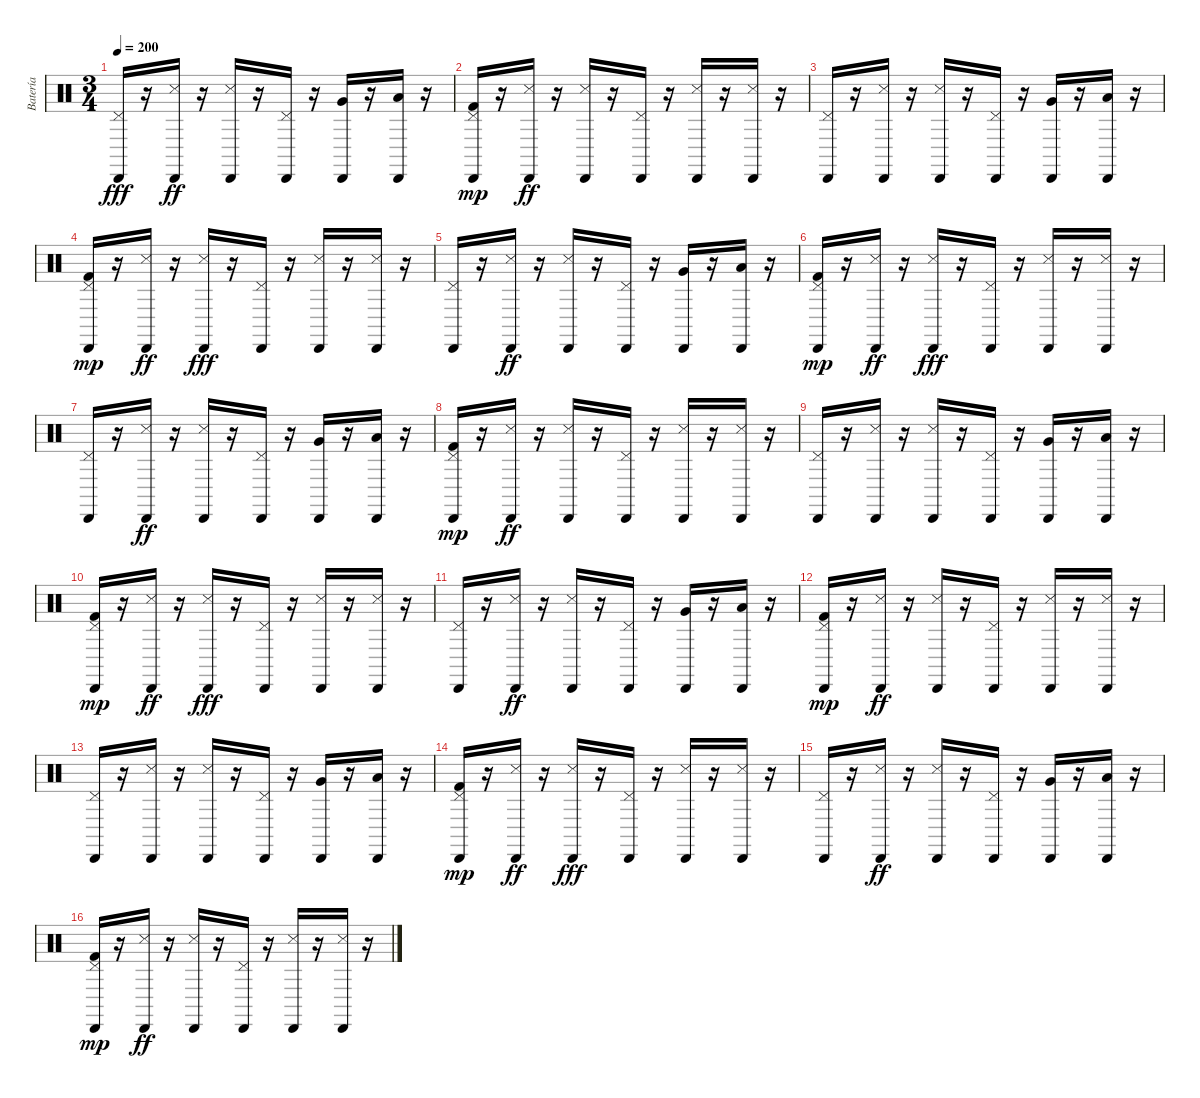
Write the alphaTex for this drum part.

\track ("Batería" "Batería") {instrument percussion}
\staff {score}
\articulation defaults
\ts (3 4)
\tempo 200
\clef neutral
\ks c
("Cabasa (hit)" "Pedal Hi-Hat (hit)").16{dy fff} r.16 ("Cabasa (hit)" "Snare (side stick) 3").16{dy ff} r.16 ("Cabasa (hit)" "Snare (side stick) 3").16 r.16 ("Cabasa (hit)" "Pedal Hi-Hat (hit)").16 r.16 ("Cabasa (hit)" "Very Low Tom (hit)").16 r.16 ("Cabasa (hit)" "Low Floor Tom (hit)").16 r.16 |
("Cabasa (hit)" "Pedal Hi-Hat (hit)" "Kick (hit) 2").16{dy mp} r.16 ("Cabasa (hit)" "Snare (side stick) 3").16{dy ff} r.16 ("Cabasa (hit)" "Snare (side stick) 3").16 r.16 ("Cabasa (hit)" "Pedal Hi-Hat (hit)").16 r.16 ("Cabasa (hit)" "Snare (side stick) 3").16 r.16 ("Cabasa (hit)" "Snare (side stick) 3").16 r.16 |
("Cabasa (hit)" "Pedal Hi-Hat (hit)").16 r.16 ("Cabasa (hit)" "Snare (side stick) 3").16 r.16 ("Cabasa (hit)" "Snare (side stick) 3").16 r.16 ("Cabasa (hit)" "Pedal Hi-Hat (hit)").16 r.16 ("Cabasa (hit)" "Very Low Tom (hit)").16 r.16 ("Cabasa (hit)" "Low Floor Tom (hit)").16 r.16 |
("Cabasa (hit)" "Pedal Hi-Hat (hit)" "Kick (hit) 2").16{dy mp} r.16 ("Cabasa (hit)" "Snare (side stick) 3").16{dy ff} r.16 ("Cabasa (hit)" "Snare (side stick) 3").16{dy fff} r.16 ("Cabasa (hit)" "Pedal Hi-Hat (hit)").16 r.16 ("Cabasa (hit)" "Snare (side stick) 3").16 r.16 ("Cabasa (hit)" "Snare (side stick) 3").16 r.16 |
("Cabasa (hit)" "Pedal Hi-Hat (hit)").16 r.16 ("Cabasa (hit)" "Snare (side stick) 3").16{dy ff} r.16 ("Cabasa (hit)" "Snare (side stick) 3").16 r.16 ("Cabasa (hit)" "Pedal Hi-Hat (hit)").16 r.16 ("Cabasa (hit)" "Very Low Tom (hit)").16 r.16 ("Cabasa (hit)" "Low Floor Tom (hit)").16 r.16 |
("Cabasa (hit)" "Pedal Hi-Hat (hit)" "Kick (hit) 2").16{dy mp} r.16 ("Cabasa (hit)" "Snare (side stick) 3").16{dy ff} r.16 ("Cabasa (hit)" "Snare (side stick) 3").16{dy fff} r.16 ("Cabasa (hit)" "Pedal Hi-Hat (hit)").16 r.16 ("Cabasa (hit)" "Snare (side stick) 3").16 r.16 ("Cabasa (hit)" "Snare (side stick) 3").16 r.16 |
("Cabasa (hit)" "Pedal Hi-Hat (hit)").16 r.16 ("Cabasa (hit)" "Snare (side stick) 3").16{dy ff} r.16 ("Cabasa (hit)" "Snare (side stick) 3").16 r.16 ("Cabasa (hit)" "Pedal Hi-Hat (hit)").16 r.16 ("Cabasa (hit)" "Very Low Tom (hit)").16 r.16 ("Cabasa (hit)" "Low Floor Tom (hit)").16 r.16 |
("Cabasa (hit)" "Pedal Hi-Hat (hit)" "Kick (hit) 2").16{dy mp} r.16 ("Cabasa (hit)" "Snare (side stick) 3").16{dy ff} r.16 ("Cabasa (hit)" "Snare (side stick) 3").16 r.16 ("Cabasa (hit)" "Pedal Hi-Hat (hit)").16 r.16 ("Cabasa (hit)" "Snare (side stick) 3").16 r.16 ("Cabasa (hit)" "Snare (side stick) 3").16 r.16 |
("Cabasa (hit)" "Pedal Hi-Hat (hit)").16 r.16 ("Cabasa (hit)" "Snare (side stick) 3").16 r.16 ("Cabasa (hit)" "Snare (side stick) 3").16 r.16 ("Cabasa (hit)" "Pedal Hi-Hat (hit)").16 r.16 ("Cabasa (hit)" "Very Low Tom (hit)").16 r.16 ("Cabasa (hit)" "Low Floor Tom (hit)").16 r.16 |
("Cabasa (hit)" "Pedal Hi-Hat (hit)" "Kick (hit) 2").16{dy mp} r.16 ("Cabasa (hit)" "Snare (side stick) 3").16{dy ff} r.16 ("Cabasa (hit)" "Snare (side stick) 3").16{dy fff} r.16 ("Cabasa (hit)" "Pedal Hi-Hat (hit)").16 r.16 ("Cabasa (hit)" "Snare (side stick) 3").16 r.16 ("Cabasa (hit)" "Snare (side stick) 3").16 r.16 |
("Cabasa (hit)" "Pedal Hi-Hat (hit)").16 r.16 ("Cabasa (hit)" "Snare (side stick) 3").16{dy ff} r.16 ("Cabasa (hit)" "Snare (side stick) 3").16 r.16 ("Cabasa (hit)" "Pedal Hi-Hat (hit)").16 r.16 ("Cabasa (hit)" "Very Low Tom (hit)").16 r.16 ("Cabasa (hit)" "Low Floor Tom (hit)").16 r.16 |
("Cabasa (hit)" "Pedal Hi-Hat (hit)" "Kick (hit) 2").16{dy mp} r.16 ("Cabasa (hit)" "Snare (side stick) 3").16{dy ff} r.16 ("Cabasa (hit)" "Snare (side stick) 3").16 r.16 ("Cabasa (hit)" "Pedal Hi-Hat (hit)").16 r.16 ("Cabasa (hit)" "Snare (side stick) 3").16 r.16 ("Cabasa (hit)" "Snare (side stick) 3").16 r.16 |
("Cabasa (hit)" "Pedal Hi-Hat (hit)").16 r.16 ("Cabasa (hit)" "Snare (side stick) 3").16 r.16 ("Cabasa (hit)" "Snare (side stick) 3").16 r.16 ("Cabasa (hit)" "Pedal Hi-Hat (hit)").16 r.16 ("Cabasa (hit)" "Very Low Tom (hit)").16 r.16 ("Cabasa (hit)" "Low Floor Tom (hit)").16 r.16 |
("Cabasa (hit)" "Pedal Hi-Hat (hit)" "Kick (hit) 2").16{dy mp} r.16 ("Cabasa (hit)" "Snare (side stick) 3").16{dy ff} r.16 ("Cabasa (hit)" "Snare (side stick) 3").16{dy fff} r.16 ("Cabasa (hit)" "Pedal Hi-Hat (hit)").16 r.16 ("Cabasa (hit)" "Snare (side stick) 3").16 r.16 ("Cabasa (hit)" "Snare (side stick) 3").16 r.16 |
("Cabasa (hit)" "Pedal Hi-Hat (hit)").16 r.16 ("Cabasa (hit)" "Snare (side stick) 3").16{dy ff} r.16 ("Cabasa (hit)" "Snare (side stick) 3").16 r.16 ("Cabasa (hit)" "Pedal Hi-Hat (hit)").16 r.16 ("Cabasa (hit)" "Very Low Tom (hit)").16 r.16 ("Cabasa (hit)" "Low Floor Tom (hit)").16 r.16 |
("Cabasa (hit)" "Pedal Hi-Hat (hit)" "Kick (hit) 2").16{dy mp} r.16 ("Cabasa (hit)" "Snare (side stick) 3").16{dy ff} r.16 ("Cabasa (hit)" "Snare (side stick) 3").16 r.16 ("Cabasa (hit)" "Pedal Hi-Hat (hit)").16 r.16 ("Cabasa (hit)" "Snare (side stick) 3").16 r.16 ("Cabasa (hit)" "Snare (side stick) 3").16 r.16
